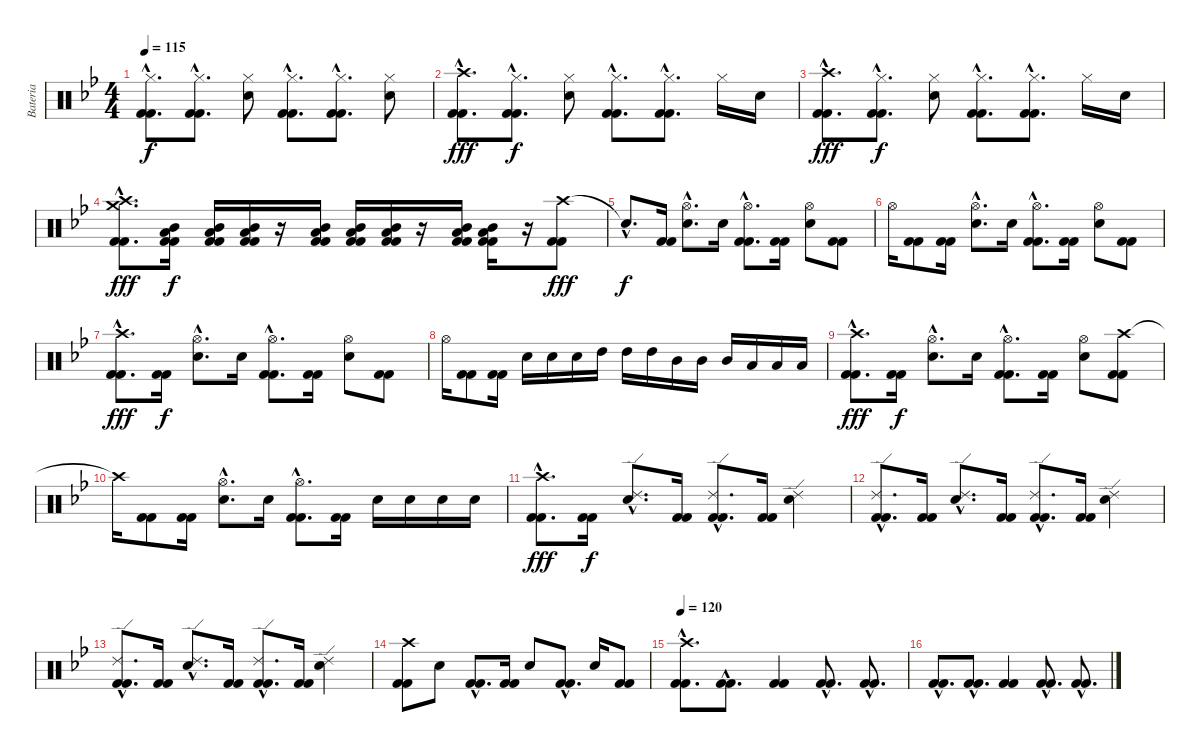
\track ("Bateria" "Bateria") {instrument percussion}
\staff {score}
\articulation defaults
\ts (4 4)
\tempo 115
\clef neutral
\ks bb
("Hi-Hat (closed)"{hac} "Kick (hit) 2"{hac} "Kick (hit) 2"{hac}).8{d dy f} ("Hi-Hat (closed)"{hac} "Kick (hit) 2"{hac} "Kick (hit) 2"{hac}).8{d} ("Hi-Hat (closed)" "Electric Snare (hit)").8 ("Hi-Hat (closed)"{hac} "Kick (hit) 2"{hac} "Kick (hit) 2"{hac}).8{d} ("Hi-Hat (closed)"{hac} "Kick (hit) 2"{hac} "Kick (hit) 2"{hac}).8{d} ("Hi-Hat (closed)" "Electric Snare (hit)").8 |
("Crash high (hit)" "Kick (hit) 2"{hac} "Kick (hit) 2"{hac}).8{d dy fff} ("Hi-Hat (closed)"{hac} "Kick (hit) 2"{hac} "Kick (hit) 2"{hac}).8{d dy f} ("Hi-Hat (closed)" "Electric Snare (hit)").8 ("Hi-Hat (closed)"{hac} "Kick (hit) 2"{hac} "Kick (hit) 2"{hac}).8{d} ("Hi-Hat (closed)"{hac} "Kick (hit) 2"{hac} "Kick (hit) 2"{hac}).8{d} "Hi-Hat (closed)".16 "Electric Snare (hit)".16 |
("Crash high (hit)" "Kick (hit) 2"{hac} "Kick (hit) 2"{hac}).8{d dy fff} ("Hi-Hat (closed)"{hac} "Kick (hit) 2"{hac} "Kick (hit) 2"{hac}).8{d dy f} ("Hi-Hat (closed)" "Electric Snare (hit)").8 ("Hi-Hat (closed)"{hac} "Kick (hit) 2"{hac} "Kick (hit) 2"{hac}).8{d} ("Hi-Hat (closed)"{hac} "Kick (hit) 2"{hac} "Kick (hit) 2"{hac}).8{d} "Hi-Hat (closed)".16 "Electric Snare (hit)".16 |
("Crash high (hit)" "Crash medium (hit)" "Kick (hit) 2"{hac} "Kick (hit) 2"{hac}).8{d dy fff} ("Mid Tom (hit)" "Low Tom (hit)" "Kick (hit) 2" "Kick (hit) 2").16{dy f} ("Mid Tom (hit)" "Low Tom (hit)" "Kick (hit) 2" "Kick (hit) 2").16 ("Mid Tom (hit)" "Low Tom (hit)" "Kick (hit) 2" "Kick (hit) 2").16 r.16 ("Mid Tom (hit)" "Low Tom (hit)" "Kick (hit) 2" "Kick (hit) 2").16 ("Mid Tom (hit)" "Low Tom (hit)" "Kick (hit) 2" "Kick (hit) 2").16 ("Mid Tom (hit)" "Low Tom (hit)" "Kick (hit) 2" "Kick (hit) 2").16 r.16 ("Mid Tom (hit)" "Low Tom (hit)" "Kick (hit) 2" "Kick (hit) 2").16 ("Mid Tom (hit)" "Low Tom (hit)" "Kick (hit) 2" "Kick (hit) 2").16 r.16 ("Crash high (hit)" "Kick (hit) 2" "Kick (hit) 2").8{dy fff} |
"Snare (hit)"{hac t}.8{d dy f} ("Kick (hit) 2" "Kick (hit) 2").16 ("Hi-Hat (open)"{hac} "Electric Snare (hit)"{hac}).8{d} "Electric Snare (hit)".16 ("Hi-Hat (open)"{hac} "Kick (hit) 2"{hac} "Kick (hit) 2"{hac}).8{d} ("Kick (hit) 2" "Kick (hit) 2").16 ("Hi-Hat (open)" "Electric Snare (hit)").8 ("Kick (hit) 2" "Kick (hit) 2").8 |
"Hi-Hat (open)".16 ("Kick (hit) 2" "Kick (hit) 2").8 ("Kick (hit) 2" "Kick (hit) 2").16 ("Hi-Hat (open)"{hac} "Electric Snare (hit)"{hac}).8{d} "Electric Snare (hit)".16 ("Hi-Hat (open)"{hac} "Kick (hit) 2"{hac} "Kick (hit) 2"{hac}).8{d} ("Kick (hit) 2" "Kick (hit) 2").16 ("Hi-Hat (open)" "Electric Snare (hit)").8 ("Kick (hit) 2" "Kick (hit) 2").8 |
("Crash high (hit)" "Kick (hit) 2"{hac} "Kick (hit) 2"{hac}).8{d dy fff} ("Kick (hit) 2" "Kick (hit) 2").16{dy f} ("Hi-Hat (open)"{hac} "Electric Snare (hit)"{hac}).8{d} "Electric Snare (hit)".16 ("Hi-Hat (open)"{hac} "Kick (hit) 2"{hac} "Kick (hit) 2"{hac}).8{d} ("Kick (hit) 2" "Kick (hit) 2").16 ("Hi-Hat (open)" "Electric Snare (hit)").8 ("Kick (hit) 2" "Kick (hit) 2").8 |
"Hi-Hat (open)".16 ("Kick (hit) 2" "Kick (hit) 2").8 ("Kick (hit) 2" "Kick (hit) 2").16 "Electric Snare (hit)".16 "Electric Snare (hit)".16 "Electric Snare (hit)".16 "High Tom (hit)".16 "High Tom (hit)".16 "High Tom (hit)".16 "Mid Tom (hit)".16 "Mid Tom (hit)".16 "Mid Tom (hit)".16 "Low Tom (hit)".16 "Low Tom (hit)".16 "Low Tom (hit)".16 |
("Crash high (hit)" "Kick (hit) 2"{hac} "Kick (hit) 2"{hac}).8{d dy fff} ("Kick (hit) 2" "Kick (hit) 2").16{dy f} ("Hi-Hat (open)"{hac} "Electric Snare (hit)"{hac}).8{d} "Electric Snare (hit)".16 ("Hi-Hat (open)"{hac} "Kick (hit) 2"{hac} "Kick (hit) 2"{hac}).8{d} ("Kick (hit) 2" "Kick (hit) 2").16 ("Hi-Hat (open)" "Electric Snare (hit)").8 ("Crash high (hit)" "Kick (hit) 2" "Kick (hit) 2").8 |
"Crash high (hit)"{t}.16 ("Kick (hit) 2" "Kick (hit) 2").8 ("Kick (hit) 2" "Kick (hit) 2").16 ("Hi-Hat (open)"{hac} "Electric Snare (hit)"{hac}).8{d} "Electric Snare (hit)".16 ("Hi-Hat (open)"{hac} "Kick (hit) 2"{hac} "Kick (hit) 2"{hac}).8{d} ("Kick (hit) 2" "Kick (hit) 2").16 "Electric Snare (hit)".16 "Electric Snare (hit)".16 "Electric Snare (hit)".16 "Electric Snare (hit)".16 |
("Crash high (hit)" "Kick (hit) 2"{hac} "Kick (hit) 2"{hac}).8{d dy fff} ("Kick (hit) 2" "Kick (hit) 2").16{dy f} ("Ride (edge) 2"{hac} "Electric Snare (hit)"{hac}).8{d} ("Kick (hit) 2" "Kick (hit) 2").16 ("Ride (edge) 2"{hac} "Kick (hit) 2"{hac} "Kick (hit) 2"{hac}).8{d} ("Kick (hit) 2" "Kick (hit) 2").16 ("Ride (edge) 2" "Electric Snare (hit)").4 |
("Ride (edge) 2"{hac} "Kick (hit) 2"{hac} "Kick (hit) 2"{hac}).8{d} ("Kick (hit) 2" "Kick (hit) 2").16 ("Ride (edge) 2"{hac} "Electric Snare (hit)"{hac}).8{d} ("Kick (hit) 2" "Kick (hit) 2").16 ("Ride (edge) 2"{hac} "Kick (hit) 2"{hac} "Kick (hit) 2"{hac}).8{d} ("Kick (hit) 2" "Kick (hit) 2").16 ("Ride (edge) 2" "Electric Snare (hit)").4 |
("Ride (edge) 2"{hac} "Kick (hit) 2"{hac} "Kick (hit) 2"{hac}).8{d} ("Kick (hit) 2" "Kick (hit) 2").16 ("Ride (edge) 2"{hac} "Electric Snare (hit)"{hac}).8{d} ("Kick (hit) 2" "Kick (hit) 2").16 ("Ride (edge) 2"{hac} "Kick (hit) 2"{hac} "Kick (hit) 2"{hac}).8{d} ("Kick (hit) 2" "Kick (hit) 2").16 ("Ride (edge) 2" "Electric Snare (hit)").4 |
("Crash high (hit)" "Kick (hit) 2" "Kick (hit) 2").8 "Electric Snare (hit)".8 ("Kick (hit) 2"{hac} "Kick (hit) 2"{hac}).8{d} ("Kick (hit) 2" "Kick (hit) 2").16 "Electric Snare (hit)".8 ("Kick (hit) 2"{hac} "Kick (hit) 2"{hac}).8{d} "Electric Snare (hit)".16 ("Kick (hit) 2" "Kick (hit) 2").8 |
\tempo 120
("Crash high (hit)"{hac} "Kick (hit) 2"{hac} "Kick (hit) 2"{hac}).8{d} ("Kick (hit) 2"{hac} "Kick (hit) 2"{hac}).8{d} ("Kick (hit) 2" "Kick (hit) 2").4 ("Kick (hit) 2"{hac} "Kick (hit) 2"{hac}).8{d} ("Kick (hit) 2"{hac} "Kick (hit) 2"{hac}).8{d} |
("Kick (hit) 2"{hac} "Kick (hit) 2"{hac}).8{d} ("Kick (hit) 2"{hac} "Kick (hit) 2"{hac}).8{d} ("Kick (hit) 2" "Kick (hit) 2").4 ("Kick (hit) 2"{hac} "Kick (hit) 2"{hac}).8{d} ("Kick (hit) 2"{hac} "Kick (hit) 2"{hac}).8{d}
